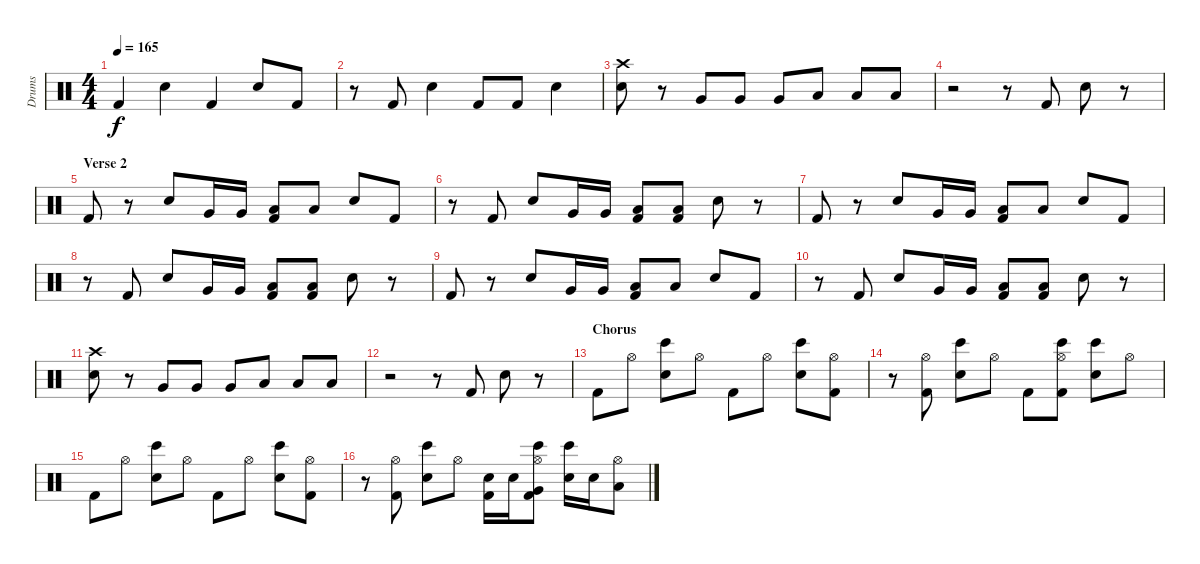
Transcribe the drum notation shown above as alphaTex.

\track ("Drums" "Drums") {instrument percussion}
\staff {score}
\articulation defaults
\ts (4 4)
\tempo 165
\clef neutral
\ks c "Kick (hit) 2".4{dy f} "Electric Snare (hit)".4 "Kick (hit) 2".4 "Electric Snare (hit)".8 "Kick (hit) 2".8
|
r.8 "Kick (hit) 2".8 "Electric Snare (hit)".4 "Kick (hit) 2".8 "Kick (hit) 2".8 "Electric Snare (hit)".4 |
("Crash high (hit)" "Electric Snare (hit)").8 r.8 "Very Low Tom (hit)".8 "Very Low Tom (hit)".8 "Very Low Tom (hit)".8 "Low Floor Tom (hit)".8 "Low Floor Tom (hit)".8 "Low Floor Tom (hit)".8 |
r.2 r.8 "Kick (hit) 2".8 "Electric Snare (hit)".8 r.8 |
\section ("" "Verse 2")
"Kick (hit) 2".8 r.8 "Electric Snare (hit)".8 "Very Low Tom (hit)".16 "Very Low Tom (hit)".16 ("Kick (hit) 2" "Low Floor Tom (hit)").8 "Low Floor Tom (hit)".8 "Electric Snare (hit)".8 "Kick (hit) 2".8 |
r.8 "Kick (hit) 2".8 "Electric Snare (hit)".8 "Very Low Tom (hit)".16 "Very Low Tom (hit)".16 ("Kick (hit) 2" "Low Floor Tom (hit)").8 ("Kick (hit) 2" "Low Floor Tom (hit)").8 "Electric Snare (hit)".8 r.8 |
"Kick (hit) 2".8 r.8 "Electric Snare (hit)".8 "Very Low Tom (hit)".16 "Very Low Tom (hit)".16 ("Kick (hit) 2" "Low Floor Tom (hit)").8 "Low Floor Tom (hit)".8 "Electric Snare (hit)".8 "Kick (hit) 2".8 |
r.8 "Kick (hit) 2".8 "Electric Snare (hit)".8 "Very Low Tom (hit)".16 "Very Low Tom (hit)".16 ("Kick (hit) 2" "Low Floor Tom (hit)").8 ("Kick (hit) 2" "Low Floor Tom (hit)").8 "Electric Snare (hit)".8 r.8 |
"Kick (hit) 2".8 r.8 "Electric Snare (hit)".8 "Very Low Tom (hit)".16 "Very Low Tom (hit)".16 ("Kick (hit) 2" "Low Floor Tom (hit)").8 "Low Floor Tom (hit)".8 "Electric Snare (hit)".8 "Kick (hit) 2".8 |
r.8 "Kick (hit) 2".8 "Electric Snare (hit)".8 "Very Low Tom (hit)".16 "Very Low Tom (hit)".16 ("Kick (hit) 2" "Low Floor Tom (hit)").8 ("Kick (hit) 2" "Low Floor Tom (hit)").8 "Electric Snare (hit)".8 r.8 |
("Crash high (hit)" "Electric Snare (hit)").8 r.8 "Very Low Tom (hit)".8 "Very Low Tom (hit)".8 "Very Low Tom (hit)".8 "Low Floor Tom (hit)".8 "Low Floor Tom (hit)".8 "Low Floor Tom (hit)".8 |
r.2 r.8 "Kick (hit) 2".8 "Electric Snare (hit)".8 r.8 |
\section ("" "Chorus")
"Kick (hit) 2".8 "Hi-Hat (open)".8 ("Electric Snare (hit)" "Bongo High (hit)").8 "Hi-Hat (open)".8 "Kick (hit) 2".8 "Hi-Hat (open)".8 ("Electric Snare (hit)" "Bongo High (hit)").8 ("Hi-Hat (open)" "Kick (hit) 2").8 |
r.8 ("Hi-Hat (open)" "Kick (hit) 2").8 ("Electric Snare (hit)" "Bongo High (hit)").8 "Hi-Hat (open)".8 "Kick (hit) 2".8 ("Hi-Hat (open)" "Kick (hit) 2" "Bongo High (hit)").8 ("Electric Snare (hit)" "Bongo High (hit)").8 "Hi-Hat (open)".8 |
"Kick (hit) 2".8 "Hi-Hat (open)".8 ("Electric Snare (hit)" "Bongo High (hit)").8 "Hi-Hat (open)".8 "Kick (hit) 2".8 "Hi-Hat (open)".8 ("Electric Snare (hit)" "Bongo High (hit)").8 ("Hi-Hat (open)" "Kick (hit) 2").8 |
r.8 ("Hi-Hat (open)" "Kick (hit) 2").8 ("Electric Snare (hit)" "Bongo High (hit)").8 "Hi-Hat (open)".8 ("Kick (hit) 2" "Electric Snare (hit)").16 "Electric Snare (hit)".16 ("Hi-Hat (open)" "Kick (hit) 2" "Very Low Tom (hit)" "Bongo High (hit)").8 ("Electric Snare (hit)" "Bongo High (hit)").16 "Electric Snare (hit)".16 ("Hi-Hat (open)" "Low Floor Tom (hit)").8
